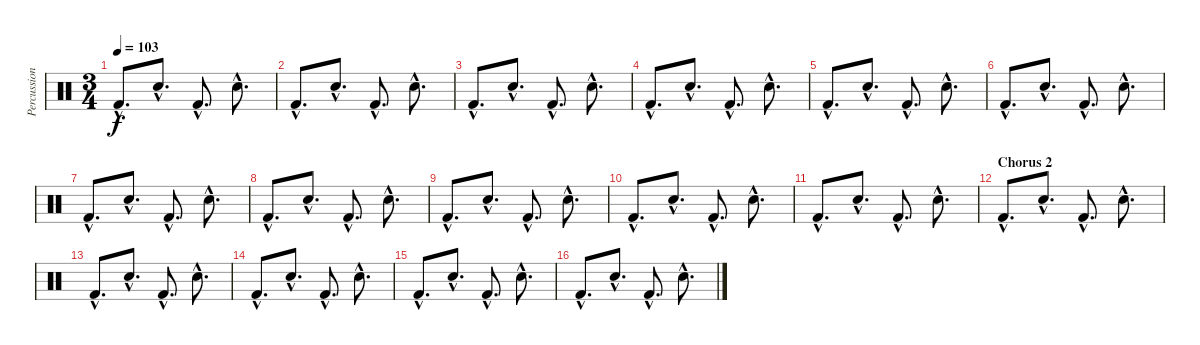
\track ("Percussion" "Percussion") {instrument percussion}
\staff {score}
\articulation defaults
\ts (3 4)
\tempo 103
\clef neutral
\ks c "Kick (hit) 2"{hac}.8{d dy f} "Electric Snare (hit)"{hac}.8{d} "Kick (hit) 2"{hac}.8{d} "Electric Snare (hit)"{hac}.8{d}
|
"Kick (hit) 2"{hac}.8{d} "Electric Snare (hit)"{hac}.8{d} "Kick (hit) 2"{hac}.8{d} "Electric Snare (hit)"{hac}.8{d} |
"Kick (hit) 2"{hac}.8{d} "Electric Snare (hit)"{hac}.8{d} "Kick (hit) 2"{hac}.8{d} "Electric Snare (hit)"{hac}.8{d} |
"Kick (hit) 2"{hac}.8{d} "Electric Snare (hit)"{hac}.8{d} "Kick (hit) 2"{hac}.8{d} "Electric Snare (hit)"{hac}.8{d} |
"Kick (hit) 2"{hac}.8{d} "Electric Snare (hit)"{hac}.8{d} "Kick (hit) 2"{hac}.8{d} "Electric Snare (hit)"{hac}.8{d} |
"Kick (hit) 2"{hac}.8{d} "Electric Snare (hit)"{hac}.8{d} "Kick (hit) 2"{hac}.8{d} "Electric Snare (hit)"{hac}.8{d} |
"Kick (hit) 2"{hac}.8{d} "Electric Snare (hit)"{hac}.8{d} "Kick (hit) 2"{hac}.8{d} "Electric Snare (hit)"{hac}.8{d} |
"Kick (hit) 2"{hac}.8{d} "Electric Snare (hit)"{hac}.8{d} "Kick (hit) 2"{hac}.8{d} "Electric Snare (hit)"{hac}.8{d} |
"Kick (hit) 2"{hac}.8{d} "Electric Snare (hit)"{hac}.8{d} "Kick (hit) 2"{hac}.8{d} "Electric Snare (hit)"{hac}.8{d} |
"Kick (hit) 2"{hac}.8{d} "Electric Snare (hit)"{hac}.8{d} "Kick (hit) 2"{hac}.8{d} "Electric Snare (hit)"{hac}.8{d} |
"Kick (hit) 2"{hac}.8{d} "Electric Snare (hit)"{hac}.8{d} "Kick (hit) 2"{hac}.8{d} "Electric Snare (hit)"{hac}.8{d} |
\section ("" "Chorus 2")
"Kick (hit) 2"{hac}.8{d} "Electric Snare (hit)"{hac}.8{d} "Kick (hit) 2"{hac}.8{d} "Electric Snare (hit)"{hac}.8{d} |
"Kick (hit) 2"{hac}.8{d} "Electric Snare (hit)"{hac}.8{d} "Kick (hit) 2"{hac}.8{d} "Electric Snare (hit)"{hac}.8{d} |
"Kick (hit) 2"{hac}.8{d} "Electric Snare (hit)"{hac}.8{d} "Kick (hit) 2"{hac}.8{d} "Electric Snare (hit)"{hac}.8{d} |
"Kick (hit) 2"{hac}.8{d} "Electric Snare (hit)"{hac}.8{d} "Kick (hit) 2"{hac}.8{d} "Electric Snare (hit)"{hac}.8{d} |
"Kick (hit) 2"{hac}.8{d} "Electric Snare (hit)"{hac}.8{d} "Kick (hit) 2"{hac}.8{d} "Electric Snare (hit)"{hac}.8{d}
